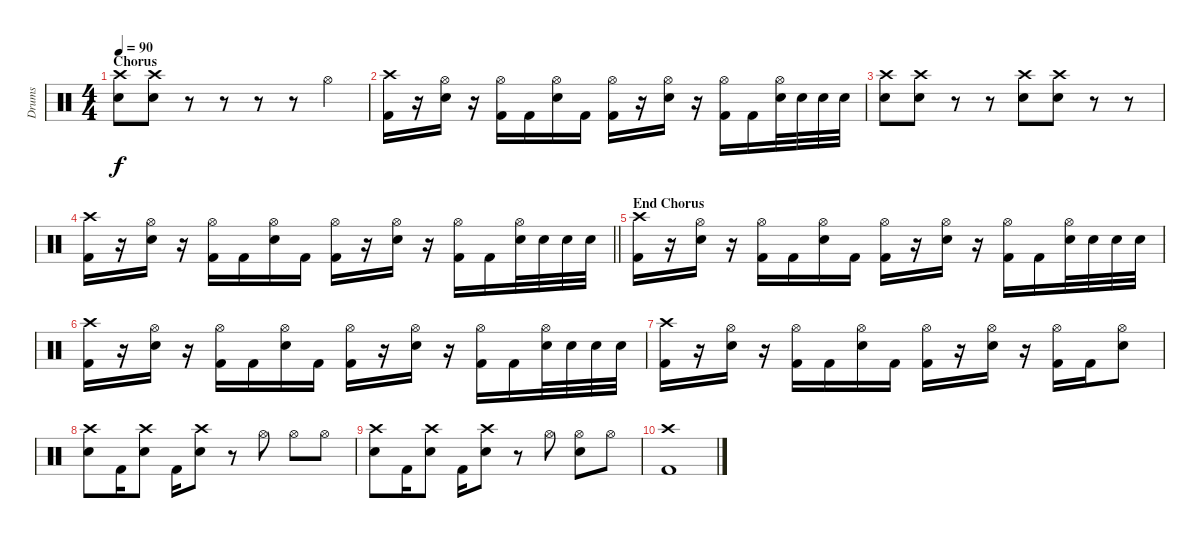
\track ("Drums" "Drums") {instrument percussion}
\staff {score}
\articulation defaults
\ts (4 4)
\section ("" "Chorus")
\tempo 90
\clef neutral
\ks c
("Crash high (hit)" "Snare (hit) 2").8{dy f} ("Crash high (hit)" "Snare (hit) 2").8 r.8 r.8 r.8 r.8 "Hi-Hat (open)".4 |
("Crash high (hit)" "Kick (hit) 2").16 r.16 ("Hi-Hat (open)" "Snare (hit) 2").16 r.16 ("Hi-Hat (open)" "Kick (hit) 2").16 "Kick (hit) 2".16 ("Hi-Hat (open)" "Snare (hit) 2").16 "Kick (hit) 2".16 ("Hi-Hat (open)" "Kick (hit) 2").16 r.16 ("Hi-Hat (open)" "Snare (hit) 2").16 r.16 ("Hi-Hat (open)" "Kick (hit) 2").16 "Kick (hit) 2".16 ("Hi-Hat (open)" "Snare (hit) 2").32 "Snare (hit) 2".32 "Snare (hit) 2".32 "Snare (hit) 2".32 |
("Crash high (hit)" "Snare (hit) 2").8 ("Crash high (hit)" "Snare (hit) 2").8 r.8 r.8 ("Crash high (hit)" "Snare (hit) 2").8 ("Crash high (hit)" "Snare (hit) 2").8 r.8 r.8 |
\barLineRight lightlight
("Crash high (hit)" "Kick (hit) 2").16 r.16 ("Hi-Hat (open)" "Snare (hit) 2").16 r.16 ("Hi-Hat (open)" "Kick (hit) 2").16 "Kick (hit) 2".16 ("Hi-Hat (open)" "Snare (hit) 2").16 "Kick (hit) 2".16 ("Hi-Hat (open)" "Kick (hit) 2").16 r.16 ("Hi-Hat (open)" "Snare (hit) 2").16 r.16 ("Hi-Hat (open)" "Kick (hit) 2").16 "Kick (hit) 2".16 ("Hi-Hat (open)" "Snare (hit) 2").32 "Snare (hit) 2".32 "Snare (hit) 2".32 "Snare (hit) 2".32 |
\section ("" "End Chorus")
("Crash high (hit)" "Kick (hit) 2").16 r.16 ("Hi-Hat (open)" "Snare (hit) 2").16 r.16 ("Hi-Hat (open)" "Kick (hit) 2").16 "Kick (hit) 2".16 ("Hi-Hat (open)" "Snare (hit) 2").16 "Kick (hit) 2".16 ("Hi-Hat (open)" "Kick (hit) 2").16 r.16 ("Hi-Hat (open)" "Snare (hit) 2").16 r.16 ("Hi-Hat (open)" "Kick (hit) 2").16 "Kick (hit) 2".16 ("Hi-Hat (open)" "Snare (hit) 2").32 "Snare (hit) 2".32 "Snare (hit) 2".32 "Snare (hit) 2".32 |
("Crash high (hit)" "Kick (hit) 2").16 r.16 ("Hi-Hat (open)" "Snare (hit) 2").16 r.16 ("Hi-Hat (open)" "Kick (hit) 2").16 "Kick (hit) 2".16 ("Hi-Hat (open)" "Snare (hit) 2").16 "Kick (hit) 2".16 ("Hi-Hat (open)" "Kick (hit) 2").16 r.16 ("Hi-Hat (open)" "Snare (hit) 2").16 r.16 ("Hi-Hat (open)" "Kick (hit) 2").16 "Kick (hit) 2".16 ("Hi-Hat (open)" "Snare (hit) 2").32 "Snare (hit) 2".32 "Snare (hit) 2".32 "Snare (hit) 2".32 |
("Crash high (hit)" "Kick (hit) 2").16 r.16 ("Hi-Hat (open)" "Snare (hit) 2").16 r.16 ("Hi-Hat (open)" "Kick (hit) 2").16 "Kick (hit) 2".16 ("Hi-Hat (open)" "Snare (hit) 2").16 "Kick (hit) 2".16 ("Hi-Hat (open)" "Kick (hit) 2").16 r.16 ("Hi-Hat (open)" "Snare (hit) 2").16 r.16 ("Hi-Hat (open)" "Kick (hit) 2").16 "Kick (hit) 2".16 ("Hi-Hat (open)" "Snare (hit) 2").8 |
("Crash high (hit)" "Snare (hit) 2").8 "Kick (hit) 2".16 ("Crash high (hit)" "Snare (hit) 2").8 "Kick (hit) 2".16 ("Crash high (hit)" "Snare (hit) 2").8 r.8 "Hi-Hat (open)".8 "Hi-Hat (open)".8 "Hi-Hat (open)".8 |
("Crash high (hit)" "Snare (hit) 2").8 "Kick (hit) 2".16 ("Crash high (hit)" "Snare (hit) 2").8 "Kick (hit) 2".16 ("Crash high (hit)" "Snare (hit) 2").8 r.8 "Hi-Hat (open)".8 ("Hi-Hat (open)" "Snare (hit) 2").8 "Hi-Hat (open)".8 |
("Crash high (hit)" "Kick (hit) 2").1
